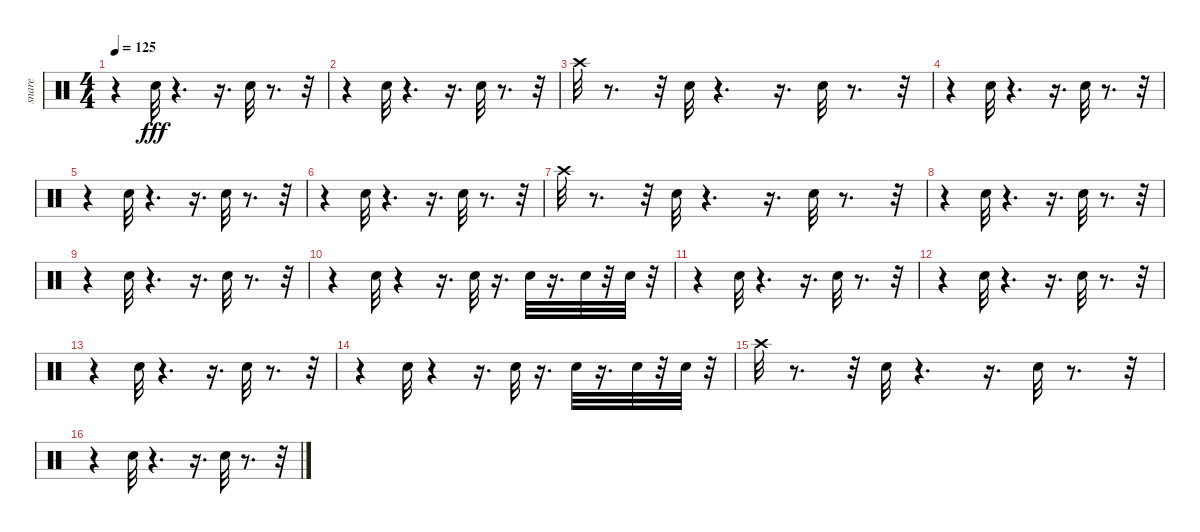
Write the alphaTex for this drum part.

\track ("snare" "snare") {instrument percussion}
\staff {score}
\articulation defaults
\ts (4 4)
\tempo 125
\clef neutral
\ks c
r.4{dy fff} "Electric Snare (hit)".32 r.4{d} r.16{d} "Electric Snare (hit)".32 r.8{d} r.32 |
r.4 "Electric Snare (hit)".32 r.4{d} r.16{d} "Electric Snare (hit)".32 r.8{d} r.32 |
"Crash high (hit)".32 r.8{d} r.32 "Electric Snare (hit)".32 r.4{d} r.16{d} "Electric Snare (hit)".32 r.8{d} r.32 |
r.4 "Electric Snare (hit)".32 r.4{d} r.16{d} "Electric Snare (hit)".32 r.8{d} r.32 |
r.4 "Electric Snare (hit)".32 r.4{d} r.16{d} "Electric Snare (hit)".32 r.8{d} r.32 |
r.4 "Electric Snare (hit)".32 r.4{d} r.16{d} "Electric Snare (hit)".32 r.8{d} r.32 |
"Crash high (hit)".32 r.8{d} r.32 "Electric Snare (hit)".32 r.4{d} r.16{d} "Electric Snare (hit)".32 r.8{d} r.32 |
r.4 "Electric Snare (hit)".32 r.4{d} r.16{d} "Electric Snare (hit)".32 r.8{d} r.32 |
r.4 "Electric Snare (hit)".32 r.4{d} r.16{d} "Electric Snare (hit)".32 r.8{d} r.32 |
r.4 "Electric Snare (hit)".32 r.4 r.16{d} "Electric Snare (hit)".32 r.16{d} "Electric Snare (hit)".32 r.16{d} "Electric Snare (hit)".32 r.32 "Electric Snare (hit)".32 r.32 |
r.4 "Electric Snare (hit)".32 r.4{d} r.16{d} "Electric Snare (hit)".32 r.8{d} r.32 |
r.4 "Electric Snare (hit)".32 r.4{d} r.16{d} "Electric Snare (hit)".32 r.8{d} r.32 |
r.4 "Electric Snare (hit)".32 r.4{d} r.16{d} "Electric Snare (hit)".32 r.8{d} r.32 |
r.4 "Electric Snare (hit)".32 r.4 r.16{d} "Electric Snare (hit)".32 r.16{d} "Electric Snare (hit)".32 r.16{d} "Electric Snare (hit)".32 r.32 "Electric Snare (hit)".32 r.32 |
"Crash high (hit)".32 r.8{d} r.32 "Electric Snare (hit)".32 r.4{d} r.16{d} "Electric Snare (hit)".32 r.8{d} r.32 |
r.4 "Electric Snare (hit)".32 r.4{d} r.16{d} "Electric Snare (hit)".32 r.8{d} r.32
